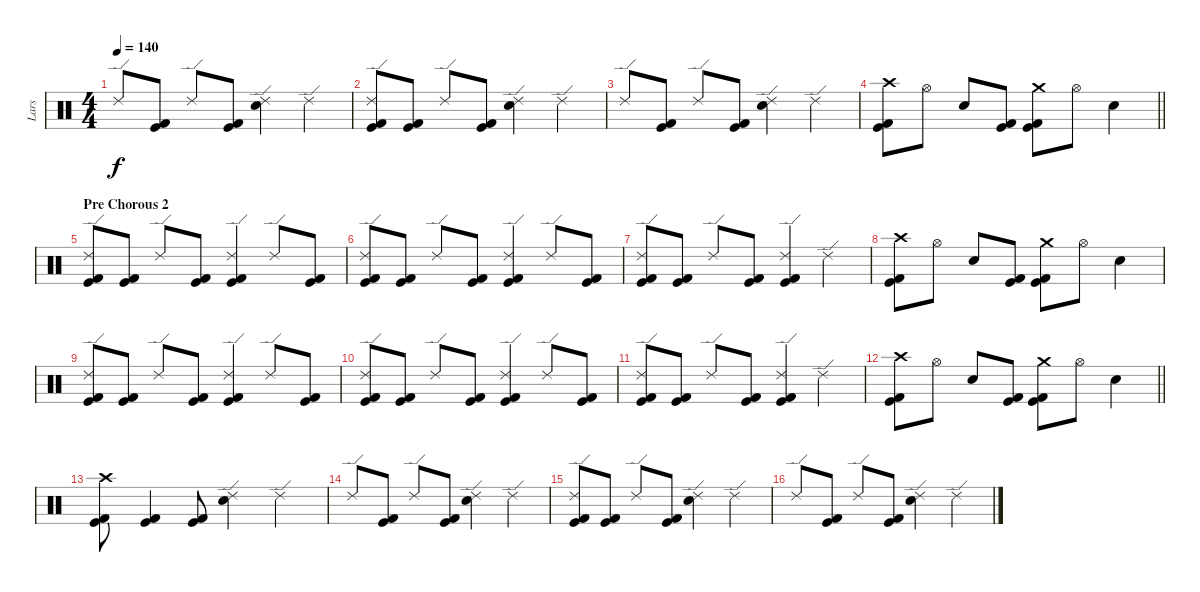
\track ("Lars" "Lars") {instrument percussion}
\staff {score}
\articulation defaults
\ts (4 4)
\tempo 140
\clef neutral
\ks c "Ride (edge) 2".8{dy f}
("Kick (hit)" "Kick (hit) 2").8 "Ride (edge) 2".8 ("Kick (hit)" "Kick (hit) 2").8 ("Ride (edge) 2" "Electric Snare (hit)").4 "Ride (edge) 2".4 |
("Ride (edge) 2" "Kick (hit)" "Kick (hit) 2").8 ("Kick (hit)" "Kick (hit) 2").8 "Ride (edge) 2".8 ("Kick (hit)" "Kick (hit) 2").8 ("Ride (edge) 2" "Electric Snare (hit)").4 "Ride (edge) 2".4 |
"Ride (edge) 2".8 ("Kick (hit)" "Kick (hit) 2").8 "Ride (edge) 2".8 ("Kick (hit)" "Kick (hit) 2").8 ("Ride (edge) 2" "Electric Snare (hit)").4 "Ride (edge) 2".4 |
\barLineRight lightlight
("Crash high (hit)" "Kick (hit)" "Kick (hit) 2").8 "Hi-Hat (open)".8 "Electric Snare (hit)".8 ("Kick (hit)" "Kick (hit) 2").8 ("Crash medium (hit)" "Kick (hit)" "Kick (hit) 2").8 "Hi-Hat (open)".8 "Electric Snare (hit)".4 |
\section ("" "Pre Chorous 2")
("Ride (edge) 2" "Kick (hit)" "Kick (hit) 2").8 ("Kick (hit)" "Kick (hit) 2").8 "Ride (edge) 2".8 ("Kick (hit)" "Kick (hit) 2").8 ("Ride (edge) 2" "Kick (hit)" "Kick (hit) 2").4 "Ride (edge) 2".8 ("Kick (hit)" "Kick (hit) 2").8 |
("Ride (edge) 2" "Kick (hit)" "Kick (hit) 2").8 ("Kick (hit)" "Kick (hit) 2").8 "Ride (edge) 2".8 ("Kick (hit)" "Kick (hit) 2").8 ("Ride (edge) 2" "Kick (hit)" "Kick (hit) 2").4 "Ride (edge) 2".8 ("Kick (hit)" "Kick (hit) 2").8 |
("Ride (edge) 2" "Kick (hit)" "Kick (hit) 2").8 ("Kick (hit)" "Kick (hit) 2").8 "Ride (edge) 2".8 ("Kick (hit)" "Kick (hit) 2").8 ("Ride (edge) 2" "Kick (hit)" "Kick (hit) 2").4 "Ride (edge) 2".4 |
("Crash high (hit)" "Kick (hit)" "Kick (hit) 2").8 "Hi-Hat (open)".8 "Electric Snare (hit)".8 ("Kick (hit)" "Kick (hit) 2").8 ("Crash medium (hit)" "Kick (hit)" "Kick (hit) 2").8 "Hi-Hat (open)".8 "Electric Snare (hit)".4 |
("Ride (edge) 2" "Kick (hit)" "Kick (hit) 2").8 ("Kick (hit)" "Kick (hit) 2").8 "Ride (edge) 2".8 ("Kick (hit)" "Kick (hit) 2").8 ("Ride (edge) 2" "Kick (hit)" "Kick (hit) 2").4 "Ride (edge) 2".8 ("Kick (hit)" "Kick (hit) 2").8 |
("Ride (edge) 2" "Kick (hit)" "Kick (hit) 2").8 ("Kick (hit)" "Kick (hit) 2").8 "Ride (edge) 2".8 ("Kick (hit)" "Kick (hit) 2").8 ("Ride (edge) 2" "Kick (hit)" "Kick (hit) 2").4 "Ride (edge) 2".8 ("Kick (hit)" "Kick (hit) 2").8 |
("Ride (edge) 2" "Kick (hit)" "Kick (hit) 2").8 ("Kick (hit)" "Kick (hit) 2").8 "Ride (edge) 2".8 ("Kick (hit)" "Kick (hit) 2").8 ("Ride (edge) 2" "Kick (hit)" "Kick (hit) 2").4 "Ride (edge) 2".4 |
\barLineRight lightlight
("Crash high (hit)" "Kick (hit)" "Kick (hit) 2").8 "Hi-Hat (open)".8 "Electric Snare (hit)".8 ("Kick (hit)" "Kick (hit) 2").8 ("Crash medium (hit)" "Kick (hit)" "Kick (hit) 2").8 "Hi-Hat (open)".8 "Electric Snare (hit)".4 |
\section ("" "")
("Crash high (hit)" "Kick (hit)" "Kick (hit) 2").8 ("Kick (hit)" "Kick (hit) 2").4 ("Kick (hit)" "Kick (hit) 2").8 ("Ride (edge) 2" "Electric Snare (hit)").4 "Ride (edge) 2".4 |
"Ride (edge) 2".8 ("Kick (hit)" "Kick (hit) 2").8 "Ride (edge) 2".8 ("Kick (hit)" "Kick (hit) 2").8 ("Ride (edge) 2" "Electric Snare (hit)").4 "Ride (edge) 2".4 |
("Ride (edge) 2" "Kick (hit)" "Kick (hit) 2").8 ("Kick (hit)" "Kick (hit) 2").8 "Ride (edge) 2".8 ("Kick (hit)" "Kick (hit) 2").8 ("Ride (edge) 2" "Electric Snare (hit)").4 "Ride (edge) 2".4 |
"Ride (edge) 2".8 ("Kick (hit)" "Kick (hit) 2").8 "Ride (edge) 2".8 ("Kick (hit)" "Kick (hit) 2").8 ("Ride (edge) 2" "Electric Snare (hit)").4 "Ride (edge) 2".4
